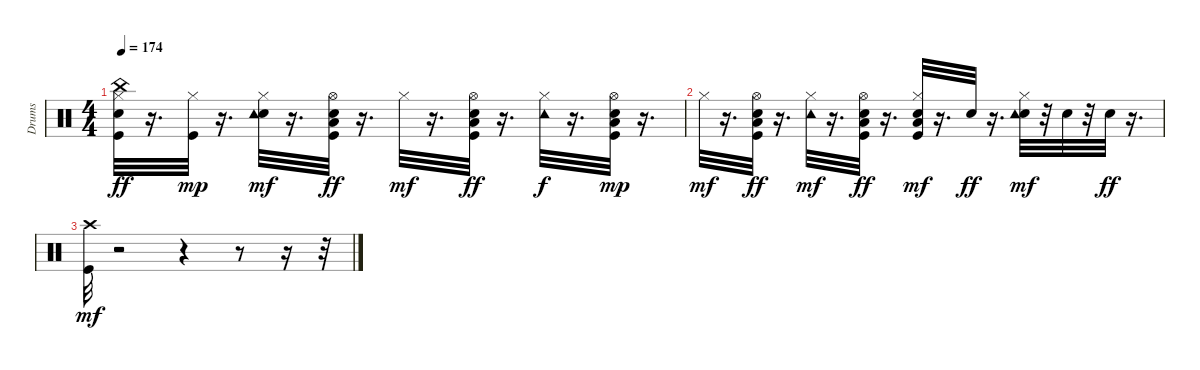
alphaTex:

\track ("Drums" "Drums") {instrument percussion}
\staff {score}
\articulation defaults
\ts (4 4)
\tempo 174
\clef neutral
\ks c
("Kick (hit)" "Hi-Hat (closed)" "Electric Snare (hit)" "China (hit)").32{dy ff} r.16{d} ("Kick (hit)" "Hi-Hat (closed)").32{dy mp} r.16{d} ("Hi-Hat (closed)" "Electric Snare (hit)" "Tambourine (hit)").32{dy mf} r.16{d} ("Low Tom (hit)" "Kick (hit)" "Hi-Hat (open)" "Electric Snare (hit)").32{dy ff} r.16{d} "Hi-Hat (closed)".32{dy mf} r.16{d} ("Low Tom (hit)" "Kick (hit)" "Hi-Hat (open)" "Electric Snare (hit)").32{dy ff} r.16{d} ("Hi-Hat (closed)" "Tambourine (hit)").32{dy f} r.16{d} ("Low Tom (hit)" "Kick (hit)" "Hi-Hat (open)" "Electric Snare (hit)").32{dy mp} r.16{d} |
"Hi-Hat (closed)".32{dy mf} r.16{d} ("Low Tom (hit)" "Kick (hit)" "Hi-Hat (open)" "Electric Snare (hit)").32{dy ff} r.16{d} ("Tambourine (hit)" "Hi-Hat (closed)").32{dy mf} r.16{d} ("Low Tom (hit)" "Kick (hit)" "Hi-Hat (open)" "Electric Snare (hit)").32{dy ff} r.16{d} ("Low Tom (hit)" "Kick (hit)" "Hi-Hat (closed)" "Electric Snare (hit)").32{dy mf} r.16{d} "Electric Snare (hit)".32{dy ff} r.16{d} ("Hi-Hat (closed)" "Electric Snare (hit)" "Tambourine (hit)").32{dy mf} r.32 "Electric Snare (hit)".32 r.32 "Electric Snare (hit)".32{dy ff} r.16{d} |
("Crash high (hit)" "Kick (hit)").32{dy mf} r.2 r.4 r.8 r.16 r.32
